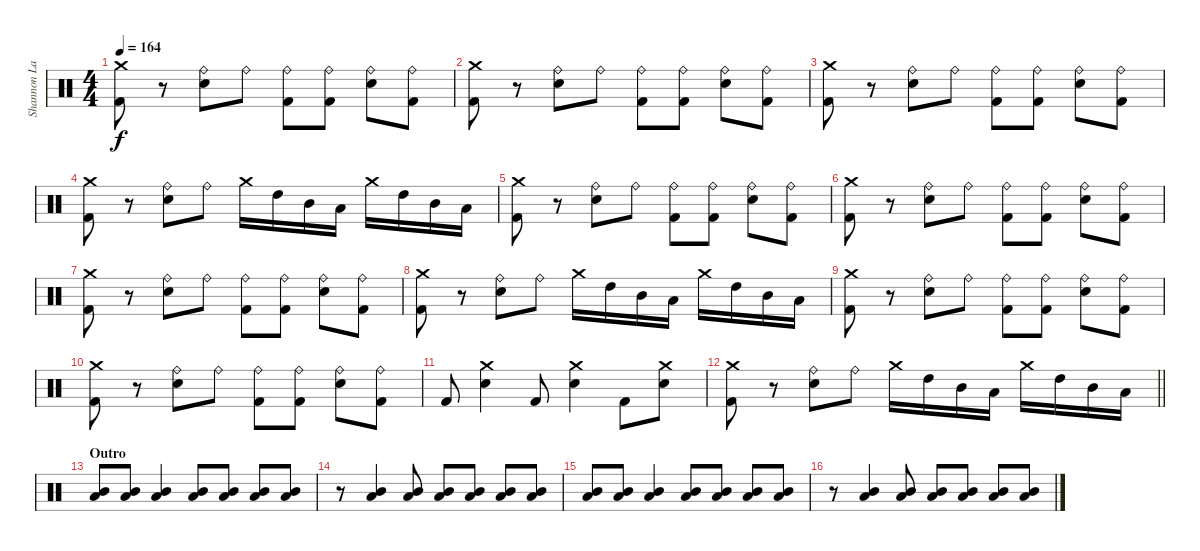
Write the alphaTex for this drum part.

\track ("Shannon Larkin" "Shannon La") {instrument percussion}
\staff {score}
\articulation defaults
\ts (4 4)
\tempo 164
\clef neutral
\ks c
("Crash medium (hit)" "Kick (hit) 2").8{dy f} r.8 ("Ride (bell)" "Electric Snare (hit)").8 "Ride (bell)".8 ("Ride (bell)" "Kick (hit) 2").8 ("Ride (bell)" "Kick (hit) 2").8 ("Ride (bell)" "Electric Snare (hit)").8 ("Ride (bell)" "Kick (hit) 2").8 |
("Crash medium (hit)" "Kick (hit) 2").8 r.8 ("Ride (bell)" "Electric Snare (hit)").8 "Ride (bell)".8 ("Ride (bell)" "Kick (hit) 2").8 ("Ride (bell)" "Kick (hit) 2").8 ("Ride (bell)" "Electric Snare (hit)").8 ("Ride (bell)" "Kick (hit) 2").8 |
("Crash medium (hit)" "Kick (hit) 2").8 r.8 ("Ride (bell)" "Electric Snare (hit)").8 "Ride (bell)".8 ("Ride (bell)" "Kick (hit) 2").8 ("Ride (bell)" "Kick (hit) 2").8 ("Ride (bell)" "Electric Snare (hit)").8 ("Ride (bell)" "Kick (hit) 2").8 |
("Crash medium (hit)" "Kick (hit) 2").8 r.8 ("Ride (bell)" "Electric Snare (hit)").8 "Ride (bell)".8 "Crash medium (hit)".16 "High Tom (hit)".16 "Mid Tom (hit)".16 "Low Tom (hit)".16 "Crash medium (hit)".16 "High Tom (hit)".16 "Mid Tom (hit)".16 "Low Tom (hit)".16 |
("Crash medium (hit)" "Kick (hit) 2").8 r.8 ("Ride (bell)" "Electric Snare (hit)").8 "Ride (bell)".8 ("Ride (bell)" "Kick (hit) 2").8 ("Ride (bell)" "Kick (hit) 2").8 ("Ride (bell)" "Electric Snare (hit)").8 ("Ride (bell)" "Kick (hit) 2").8 |
("Crash medium (hit)" "Kick (hit) 2").8 r.8 ("Ride (bell)" "Electric Snare (hit)").8 "Ride (bell)".8 ("Ride (bell)" "Kick (hit) 2").8 ("Ride (bell)" "Kick (hit) 2").8 ("Ride (bell)" "Electric Snare (hit)").8 ("Ride (bell)" "Kick (hit) 2").8 |
("Crash medium (hit)" "Kick (hit) 2").8 r.8 ("Ride (bell)" "Electric Snare (hit)").8 "Ride (bell)".8 ("Ride (bell)" "Kick (hit) 2").8 ("Ride (bell)" "Kick (hit) 2").8 ("Ride (bell)" "Electric Snare (hit)").8 ("Ride (bell)" "Kick (hit) 2").8 |
("Crash medium (hit)" "Kick (hit) 2").8 r.8 ("Ride (bell)" "Electric Snare (hit)").8 "Ride (bell)".8 "Crash medium (hit)".16 "High Tom (hit)".16 "Mid Tom (hit)".16 "Low Tom (hit)".16 "Crash medium (hit)".16 "High Tom (hit)".16 "Mid Tom (hit)".16 "Low Tom (hit)".16 |
("Crash medium (hit)" "Kick (hit) 2").8 r.8 ("Ride (bell)" "Electric Snare (hit)").8 "Ride (bell)".8 ("Ride (bell)" "Kick (hit) 2").8 ("Ride (bell)" "Kick (hit) 2").8 ("Ride (bell)" "Electric Snare (hit)").8 ("Ride (bell)" "Kick (hit) 2").8 |
("Crash medium (hit)" "Kick (hit) 2").8 r.8 ("Ride (bell)" "Electric Snare (hit)").8 "Ride (bell)".8 ("Ride (bell)" "Kick (hit) 2").8 ("Ride (bell)" "Kick (hit) 2").8 ("Ride (bell)" "Electric Snare (hit)").8 ("Ride (bell)" "Kick (hit) 2").8 |
"Kick (hit) 2".8 ("Crash medium (hit)" "Electric Snare (hit)").4 "Kick (hit) 2".8 ("Crash medium (hit)" "Electric Snare (hit)").4 "Kick (hit) 2".8 ("Crash medium (hit)" "Electric Snare (hit)").8 |
\barLineRight lightlight
("Crash medium (hit)" "Kick (hit) 2").8 r.8 ("Ride (bell)" "Electric Snare (hit)").8 "Ride (bell)".8 "Crash medium (hit)".16 "High Tom (hit)".16 "Mid Tom (hit)".16 "Low Tom (hit)".16 "Crash medium (hit)".16 "High Tom (hit)".16 "Mid Tom (hit)".16 "Low Tom (hit)".16 |
\section ("" "Outro")
("Mid Tom (hit)" "Low Tom (hit)").8 ("Mid Tom (hit)" "Low Tom (hit)").8 ("Mid Tom (hit)" "Low Tom (hit)").4 ("Mid Tom (hit)" "Low Tom (hit)").8 ("Mid Tom (hit)" "Low Tom (hit)").8 ("Mid Tom (hit)" "Low Tom (hit)").8 ("Mid Tom (hit)" "Low Tom (hit)").8 |
r.8 ("Mid Tom (hit)" "Low Tom (hit)").4 ("Mid Tom (hit)" "Low Tom (hit)").8 ("Mid Tom (hit)" "Low Tom (hit)").8 ("Mid Tom (hit)" "Low Tom (hit)").8 ("Mid Tom (hit)" "Low Tom (hit)").8 ("Mid Tom (hit)" "Low Tom (hit)").8 |
("Mid Tom (hit)" "Low Tom (hit)").8 ("Mid Tom (hit)" "Low Tom (hit)").8 ("Mid Tom (hit)" "Low Tom (hit)").4 ("Mid Tom (hit)" "Low Tom (hit)").8 ("Mid Tom (hit)" "Low Tom (hit)").8 ("Mid Tom (hit)" "Low Tom (hit)").8 ("Mid Tom (hit)" "Low Tom (hit)").8 |
r.8 ("Mid Tom (hit)" "Low Tom (hit)").4 ("Mid Tom (hit)" "Low Tom (hit)").8 ("Mid Tom (hit)" "Low Tom (hit)").8 ("Mid Tom (hit)" "Low Tom (hit)").8 ("Mid Tom (hit)" "Low Tom (hit)").8 ("Mid Tom (hit)" "Low Tom (hit)").8
